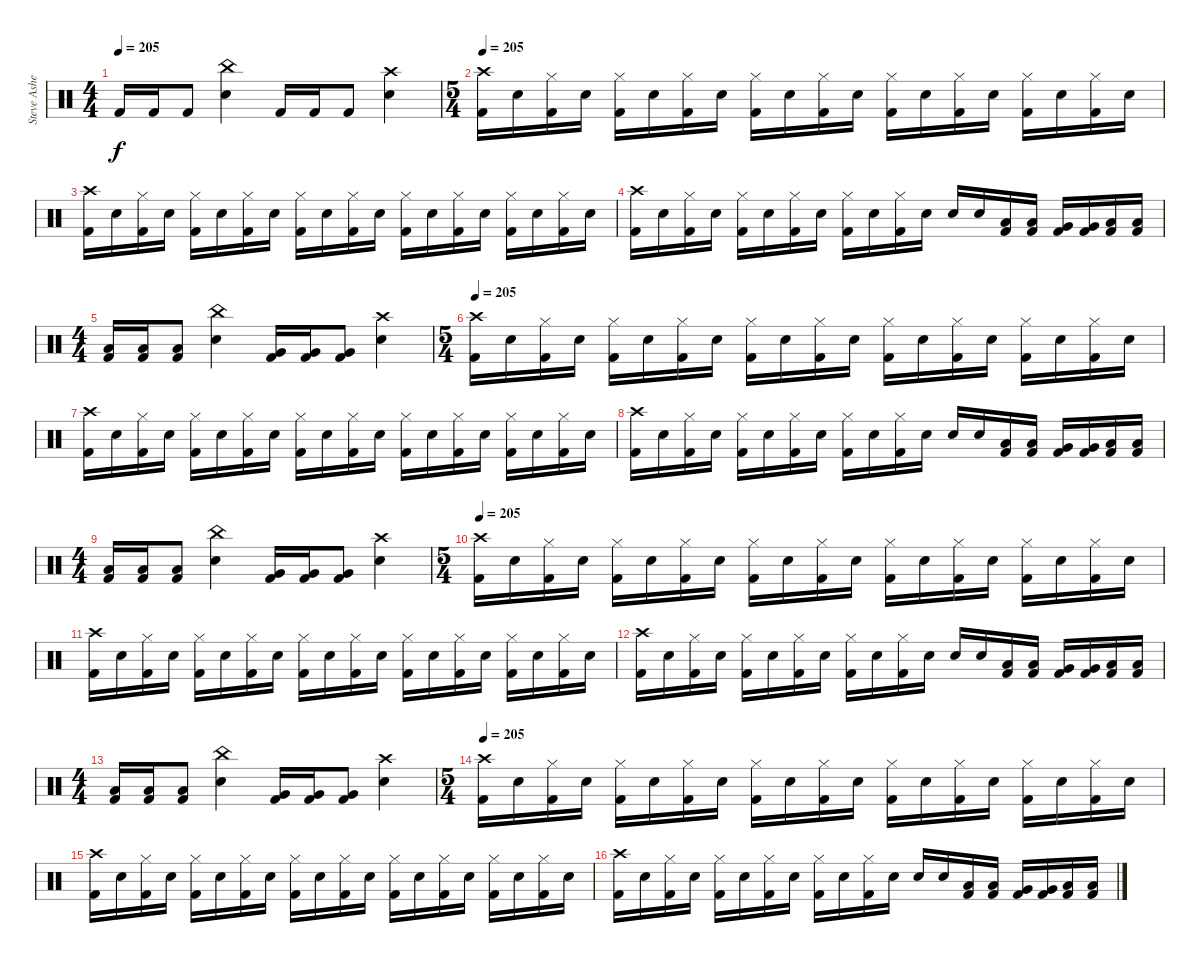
\track ("Steve Asheim" "Steve Ashe") {instrument percussion}
\staff {score}
\articulation defaults
\ts (4 4)
\tempo 205
\clef neutral
\ks c "Kick (hit) 2".16{dy f volume 14} "Kick (hit) 2".16 "Kick (hit) 2".8
("China (hit)" "Electric Snare (hit)").4 "Kick (hit) 2".16 "Kick (hit) 2".16 "Kick (hit) 2".8 ("Crash high (hit)" "Electric Snare (hit)").4 |
\ts (5 4)
\tempo 205
("Crash high (hit)" "Kick (hit) 2").16 "Electric Snare (hit)".16 ("Hi-Hat (closed)" "Kick (hit) 2").16 "Electric Snare (hit)".16 ("Hi-Hat (closed)" "Kick (hit) 2").16 "Electric Snare (hit)".16 ("Hi-Hat (closed)" "Kick (hit) 2").16 "Electric Snare (hit)".16 ("Hi-Hat (closed)" "Kick (hit) 2").16 "Electric Snare (hit)".16 ("Hi-Hat (closed)" "Kick (hit) 2").16 "Electric Snare (hit)".16 ("Hi-Hat (closed)" "Kick (hit) 2").16 "Electric Snare (hit)".16 ("Hi-Hat (closed)" "Kick (hit) 2").16 "Electric Snare (hit)".16 ("Hi-Hat (closed)" "Kick (hit) 2").16 "Electric Snare (hit)".16 ("Hi-Hat (closed)" "Kick (hit) 2").16 "Electric Snare (hit)".16 |
("Crash high (hit)" "Kick (hit) 2").16 "Electric Snare (hit)".16 ("Hi-Hat (closed)" "Kick (hit) 2").16 "Electric Snare (hit)".16 ("Hi-Hat (closed)" "Kick (hit) 2").16 "Electric Snare (hit)".16 ("Hi-Hat (closed)" "Kick (hit) 2").16 "Electric Snare (hit)".16 ("Hi-Hat (closed)" "Kick (hit) 2").16 "Electric Snare (hit)".16 ("Hi-Hat (closed)" "Kick (hit) 2").16 "Electric Snare (hit)".16 ("Hi-Hat (closed)" "Kick (hit) 2").16 "Electric Snare (hit)".16 ("Hi-Hat (closed)" "Kick (hit) 2").16 "Electric Snare (hit)".16 ("Hi-Hat (closed)" "Kick (hit) 2").16 "Electric Snare (hit)".16 ("Hi-Hat (closed)" "Kick (hit) 2").16 "Electric Snare (hit)".16 |
("Crash high (hit)" "Kick (hit) 2").16 "Electric Snare (hit)".16 ("Hi-Hat (closed)" "Kick (hit) 2").16 "Electric Snare (hit)".16 ("Hi-Hat (closed)" "Kick (hit) 2").16 "Electric Snare (hit)".16 ("Hi-Hat (closed)" "Kick (hit) 2").16 "Electric Snare (hit)".16 ("Hi-Hat (closed)" "Kick (hit) 2").16 "Electric Snare (hit)".16 ("Hi-Hat (closed)" "Kick (hit) 2").16 "Electric Snare (hit)".16 "Electric Snare (hit)".16 "Electric Snare (hit)".16 ("Low Tom (hit)" "Kick (hit) 2").16 ("Low Tom (hit)" "Kick (hit) 2").16 ("Very Low Tom (hit)" "Kick (hit) 2").16 ("Very Low Tom (hit)" "Kick (hit) 2").16 ("Low Floor Tom (hit)" "Kick (hit) 2").16 ("Low Floor Tom (hit)" "Kick (hit) 2").16 |
\ts (4 4)
("Low Tom (hit)" "Kick (hit) 2").16{volume 14} ("Low Tom (hit)" "Kick (hit) 2").16 ("Low Tom (hit)" "Kick (hit) 2").8 ("China (hit)" "Electric Snare (hit)").4 ("Very Low Tom (hit)" "Kick (hit) 2").16 ("Very Low Tom (hit)" "Kick (hit) 2").16 ("Very Low Tom (hit)" "Kick (hit) 2").8 ("Crash high (hit)" "Electric Snare (hit)").4 |
\ts (5 4)
\tempo 205
("Crash high (hit)" "Kick (hit) 2").16 "Electric Snare (hit)".16 ("Hi-Hat (closed)" "Kick (hit) 2").16 "Electric Snare (hit)".16 ("Hi-Hat (closed)" "Kick (hit) 2").16 "Electric Snare (hit)".16 ("Hi-Hat (closed)" "Kick (hit) 2").16 "Electric Snare (hit)".16 ("Hi-Hat (closed)" "Kick (hit) 2").16 "Electric Snare (hit)".16 ("Hi-Hat (closed)" "Kick (hit) 2").16 "Electric Snare (hit)".16 ("Hi-Hat (closed)" "Kick (hit) 2").16 "Electric Snare (hit)".16 ("Hi-Hat (closed)" "Kick (hit) 2").16 "Electric Snare (hit)".16 ("Hi-Hat (closed)" "Kick (hit) 2").16 "Electric Snare (hit)".16 ("Hi-Hat (closed)" "Kick (hit) 2").16 "Electric Snare (hit)".16 |
("Crash high (hit)" "Kick (hit) 2").16 "Electric Snare (hit)".16 ("Hi-Hat (closed)" "Kick (hit) 2").16 "Electric Snare (hit)".16 ("Hi-Hat (closed)" "Kick (hit) 2").16 "Electric Snare (hit)".16 ("Hi-Hat (closed)" "Kick (hit) 2").16 "Electric Snare (hit)".16 ("Hi-Hat (closed)" "Kick (hit) 2").16 "Electric Snare (hit)".16 ("Hi-Hat (closed)" "Kick (hit) 2").16 "Electric Snare (hit)".16 ("Hi-Hat (closed)" "Kick (hit) 2").16 "Electric Snare (hit)".16 ("Hi-Hat (closed)" "Kick (hit) 2").16 "Electric Snare (hit)".16 ("Hi-Hat (closed)" "Kick (hit) 2").16 "Electric Snare (hit)".16 ("Hi-Hat (closed)" "Kick (hit) 2").16 "Electric Snare (hit)".16 |
("Crash high (hit)" "Kick (hit) 2").16 "Electric Snare (hit)".16 ("Hi-Hat (closed)" "Kick (hit) 2").16 "Electric Snare (hit)".16 ("Hi-Hat (closed)" "Kick (hit) 2").16 "Electric Snare (hit)".16 ("Hi-Hat (closed)" "Kick (hit) 2").16 "Electric Snare (hit)".16 ("Hi-Hat (closed)" "Kick (hit) 2").16 "Electric Snare (hit)".16 ("Hi-Hat (closed)" "Kick (hit) 2").16 "Electric Snare (hit)".16 "Electric Snare (hit)".16 "Electric Snare (hit)".16 ("Low Tom (hit)" "Kick (hit) 2").16 ("Low Tom (hit)" "Kick (hit) 2").16 ("Very Low Tom (hit)" "Kick (hit) 2").16 ("Very Low Tom (hit)" "Kick (hit) 2").16 ("Low Floor Tom (hit)" "Kick (hit) 2").16 ("Low Floor Tom (hit)" "Kick (hit) 2").16 |
\ts (4 4)
("Low Tom (hit)" "Kick (hit) 2").16{volume 14} ("Low Tom (hit)" "Kick (hit) 2").16 ("Low Tom (hit)" "Kick (hit) 2").8 ("China (hit)" "Electric Snare (hit)").4 ("Very Low Tom (hit)" "Kick (hit) 2").16 ("Very Low Tom (hit)" "Kick (hit) 2").16 ("Very Low Tom (hit)" "Kick (hit) 2").8 ("Crash high (hit)" "Electric Snare (hit)").4 |
\ts (5 4)
\tempo 205
("Crash high (hit)" "Kick (hit) 2").16 "Electric Snare (hit)".16 ("Hi-Hat (closed)" "Kick (hit) 2").16 "Electric Snare (hit)".16 ("Hi-Hat (closed)" "Kick (hit) 2").16 "Electric Snare (hit)".16 ("Hi-Hat (closed)" "Kick (hit) 2").16 "Electric Snare (hit)".16 ("Hi-Hat (closed)" "Kick (hit) 2").16 "Electric Snare (hit)".16 ("Hi-Hat (closed)" "Kick (hit) 2").16 "Electric Snare (hit)".16 ("Hi-Hat (closed)" "Kick (hit) 2").16 "Electric Snare (hit)".16 ("Hi-Hat (closed)" "Kick (hit) 2").16 "Electric Snare (hit)".16 ("Hi-Hat (closed)" "Kick (hit) 2").16 "Electric Snare (hit)".16 ("Hi-Hat (closed)" "Kick (hit) 2").16 "Electric Snare (hit)".16 |
("Crash high (hit)" "Kick (hit) 2").16 "Electric Snare (hit)".16 ("Hi-Hat (closed)" "Kick (hit) 2").16 "Electric Snare (hit)".16 ("Hi-Hat (closed)" "Kick (hit) 2").16 "Electric Snare (hit)".16 ("Hi-Hat (closed)" "Kick (hit) 2").16 "Electric Snare (hit)".16 ("Hi-Hat (closed)" "Kick (hit) 2").16 "Electric Snare (hit)".16 ("Hi-Hat (closed)" "Kick (hit) 2").16 "Electric Snare (hit)".16 ("Hi-Hat (closed)" "Kick (hit) 2").16 "Electric Snare (hit)".16 ("Hi-Hat (closed)" "Kick (hit) 2").16 "Electric Snare (hit)".16 ("Hi-Hat (closed)" "Kick (hit) 2").16 "Electric Snare (hit)".16 ("Hi-Hat (closed)" "Kick (hit) 2").16 "Electric Snare (hit)".16 |
("Crash high (hit)" "Kick (hit) 2").16 "Electric Snare (hit)".16 ("Hi-Hat (closed)" "Kick (hit) 2").16 "Electric Snare (hit)".16 ("Hi-Hat (closed)" "Kick (hit) 2").16 "Electric Snare (hit)".16 ("Hi-Hat (closed)" "Kick (hit) 2").16 "Electric Snare (hit)".16 ("Hi-Hat (closed)" "Kick (hit) 2").16 "Electric Snare (hit)".16 ("Hi-Hat (closed)" "Kick (hit) 2").16 "Electric Snare (hit)".16 "Electric Snare (hit)".16 "Electric Snare (hit)".16 ("Low Tom (hit)" "Kick (hit) 2").16 ("Low Tom (hit)" "Kick (hit) 2").16 ("Very Low Tom (hit)" "Kick (hit) 2").16 ("Very Low Tom (hit)" "Kick (hit) 2").16 ("Low Floor Tom (hit)" "Kick (hit) 2").16 ("Low Floor Tom (hit)" "Kick (hit) 2").16 |
\ts (4 4)
("Low Tom (hit)" "Kick (hit) 2").16{volume 14} ("Low Tom (hit)" "Kick (hit) 2").16 ("Low Tom (hit)" "Kick (hit) 2").8 ("China (hit)" "Electric Snare (hit)").4 ("Very Low Tom (hit)" "Kick (hit) 2").16 ("Very Low Tom (hit)" "Kick (hit) 2").16 ("Very Low Tom (hit)" "Kick (hit) 2").8 ("Crash high (hit)" "Electric Snare (hit)").4 |
\ts (5 4)
\tempo 205
("Crash high (hit)" "Kick (hit) 2").16 "Electric Snare (hit)".16 ("Hi-Hat (closed)" "Kick (hit) 2").16 "Electric Snare (hit)".16 ("Hi-Hat (closed)" "Kick (hit) 2").16 "Electric Snare (hit)".16 ("Hi-Hat (closed)" "Kick (hit) 2").16 "Electric Snare (hit)".16 ("Hi-Hat (closed)" "Kick (hit) 2").16 "Electric Snare (hit)".16 ("Hi-Hat (closed)" "Kick (hit) 2").16 "Electric Snare (hit)".16 ("Hi-Hat (closed)" "Kick (hit) 2").16 "Electric Snare (hit)".16 ("Hi-Hat (closed)" "Kick (hit) 2").16 "Electric Snare (hit)".16 ("Hi-Hat (closed)" "Kick (hit) 2").16 "Electric Snare (hit)".16 ("Hi-Hat (closed)" "Kick (hit) 2").16 "Electric Snare (hit)".16 |
("Crash high (hit)" "Kick (hit) 2").16 "Electric Snare (hit)".16 ("Hi-Hat (closed)" "Kick (hit) 2").16 "Electric Snare (hit)".16 ("Hi-Hat (closed)" "Kick (hit) 2").16 "Electric Snare (hit)".16 ("Hi-Hat (closed)" "Kick (hit) 2").16 "Electric Snare (hit)".16 ("Hi-Hat (closed)" "Kick (hit) 2").16 "Electric Snare (hit)".16 ("Hi-Hat (closed)" "Kick (hit) 2").16 "Electric Snare (hit)".16 ("Hi-Hat (closed)" "Kick (hit) 2").16 "Electric Snare (hit)".16 ("Hi-Hat (closed)" "Kick (hit) 2").16 "Electric Snare (hit)".16 ("Hi-Hat (closed)" "Kick (hit) 2").16 "Electric Snare (hit)".16 ("Hi-Hat (closed)" "Kick (hit) 2").16 "Electric Snare (hit)".16 |
("Crash high (hit)" "Kick (hit) 2").16 "Electric Snare (hit)".16 ("Hi-Hat (closed)" "Kick (hit) 2").16 "Electric Snare (hit)".16 ("Hi-Hat (closed)" "Kick (hit) 2").16 "Electric Snare (hit)".16 ("Hi-Hat (closed)" "Kick (hit) 2").16 "Electric Snare (hit)".16 ("Hi-Hat (closed)" "Kick (hit) 2").16 "Electric Snare (hit)".16 ("Hi-Hat (closed)" "Kick (hit) 2").16 "Electric Snare (hit)".16 "Electric Snare (hit)".16 "Electric Snare (hit)".16 ("Low Tom (hit)" "Kick (hit) 2").16 ("Low Tom (hit)" "Kick (hit) 2").16 ("Very Low Tom (hit)" "Kick (hit) 2").16 ("Very Low Tom (hit)" "Kick (hit) 2").16 ("Low Floor Tom (hit)" "Kick (hit) 2").16 ("Low Floor Tom (hit)" "Kick (hit) 2").16
